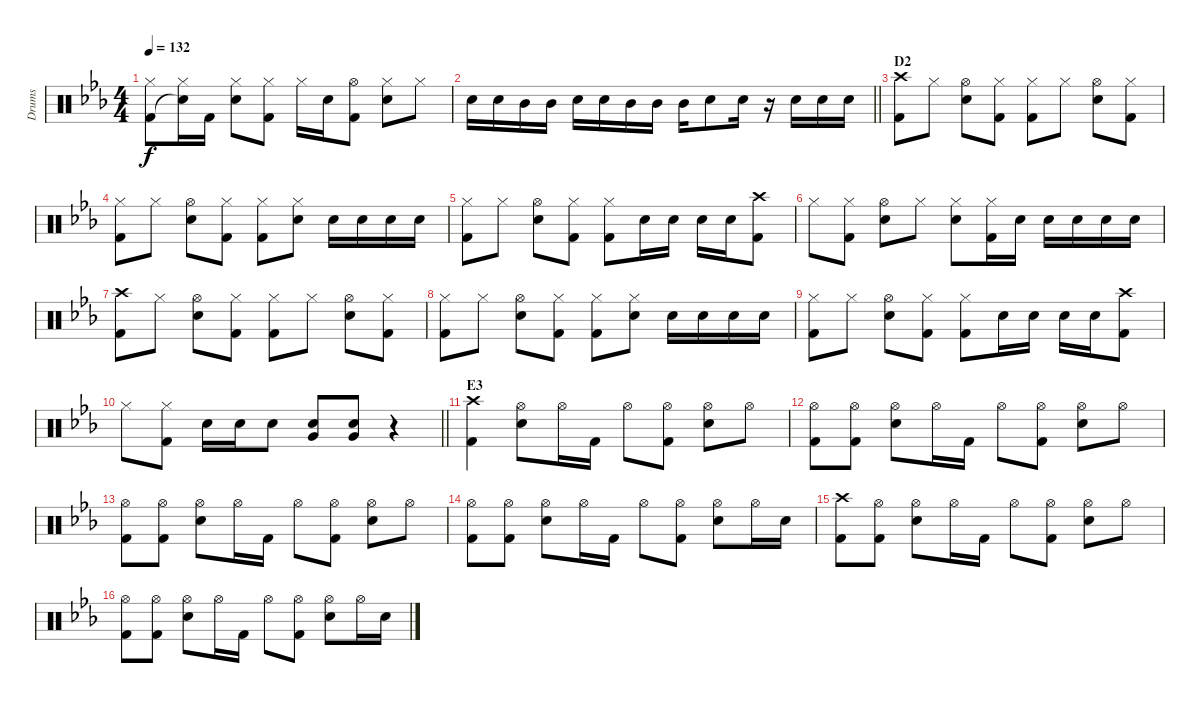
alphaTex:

\track ("Drums" "Drums") {instrument percussion}
\staff {score}
\articulation defaults
\ts (4 4)
\tempo 132
\clef neutral
\ks eb
("Hi-Hat (closed)" "Kick (hit) 2").8{dy f} ("Hi-Hat (closed)" "Snare (hit)"{t}).16 "Kick (hit) 2".16 ("Hi-Hat (closed)" "Snare (hit) 2").8 ("Hi-Hat (closed)" "Kick (hit) 2").8 "Hi-Hat (closed)".16 "Snare (hit) 2".16 ("Hi-Hat (open)" "Kick (hit) 2").8 ("Hi-Hat (closed)" "Snare (hit) 2").8 "Hi-Hat (closed)".8 |
\barLineRight lightlight "Snare (hit) 2".16 "Snare (hit) 2".16 "Mid Tom (hit)".16 "Mid Tom (hit)".16 "Snare (hit) 2".16 "Snare (hit) 2".16 "Mid Tom (hit)".16 "Mid Tom (hit)".16 "Mid Tom (hit)".16 "Snare (hit) 2".8 "Snare (hit) 2".16
r.16 "Snare (hit) 2".16 "Snare (hit) 2".16 "Snare (hit) 2".16 |
\section ("" "D2")
("Crash high (hit)" "Kick (hit) 2").8 "Hi-Hat (closed)".8 ("Hi-Hat (open)" "Snare (hit) 2").8 ("Hi-Hat (closed)" "Kick (hit) 2").8 ("Hi-Hat (closed)" "Kick (hit) 2").8 "Hi-Hat (closed)".8 ("Hi-Hat (open)" "Snare (hit) 2").8 ("Hi-Hat (closed)" "Kick (hit) 2").8 |
("Hi-Hat (closed)" "Kick (hit) 2").8 "Hi-Hat (closed)".8 ("Hi-Hat (open)" "Snare (hit) 2").8 ("Hi-Hat (closed)" "Kick (hit) 2").8 ("Hi-Hat (closed)" "Kick (hit) 2").8 ("Hi-Hat (closed)" "Snare (hit) 2").8 "Snare (hit) 2".16 "Snare (hit) 2".16 "Snare (hit) 2".16 "Snare (hit) 2".16 |
("Hi-Hat (closed)" "Kick (hit) 2").8 "Hi-Hat (closed)".8 ("Hi-Hat (open)" "Snare (hit) 2").8 ("Hi-Hat (closed)" "Kick (hit) 2").8 ("Hi-Hat (closed)" "Kick (hit) 2").8 "Snare (hit) 2".16 "Snare (hit) 2".16 "Snare (hit) 2".16 "Snare (hit) 2".16 ("Crash high (hit)" "Kick (hit) 2").8 |
"Hi-Hat (closed)".8 ("Hi-Hat (closed)" "Kick (hit) 2").8 ("Hi-Hat (open)" "Snare (hit) 2").8 "Hi-Hat (closed)".8 ("Hi-Hat (closed)" "Snare (hit) 2").8 ("Hi-Hat (closed)" "Kick (hit) 2").16 "Snare (hit) 2".16 "Snare (hit) 2".16 "Snare (hit) 2".16 "Snare (hit) 2".16 "Snare (hit) 2".16 |
("Crash high (hit)" "Kick (hit) 2").8 "Hi-Hat (closed)".8 ("Hi-Hat (open)" "Snare (hit) 2").8 ("Hi-Hat (closed)" "Kick (hit) 2").8 ("Hi-Hat (closed)" "Kick (hit) 2").8 "Hi-Hat (closed)".8 ("Hi-Hat (open)" "Snare (hit) 2").8 ("Hi-Hat (closed)" "Kick (hit) 2").8 |
("Hi-Hat (closed)" "Kick (hit) 2").8 "Hi-Hat (closed)".8 ("Hi-Hat (open)" "Snare (hit) 2").8 ("Hi-Hat (closed)" "Kick (hit) 2").8 ("Hi-Hat (closed)" "Kick (hit) 2").8 ("Hi-Hat (closed)" "Snare (hit) 2").8 "Snare (hit) 2".16 "Snare (hit) 2".16 "Snare (hit) 2".16 "Snare (hit) 2".16 |
("Hi-Hat (closed)" "Kick (hit) 2").8 "Hi-Hat (closed)".8 ("Hi-Hat (open)" "Snare (hit) 2").8 ("Hi-Hat (closed)" "Kick (hit) 2").8 ("Hi-Hat (closed)" "Kick (hit) 2").8 "Snare (hit) 2".16 "Snare (hit) 2".16 "Snare (hit) 2".16 "Snare (hit) 2".16 ("Crash high (hit)" "Kick (hit) 2").8 |
\barLineRight lightlight "Hi-Hat (closed)".8
("Hi-Hat (closed)" "Kick (hit) 2").8 "Snare (hit) 2".16 "Snare (hit) 2".16 "Snare (hit) 2".8 ("Snare (hit) 2" "Very Low Tom (hit)").8 ("Snare (hit) 2" "Very Low Tom (hit)").8 r.4 |
\section ("" "E3")
("Crash high (hit)" "Kick (hit) 2").4 ("Hi-Hat (open)" "Snare (hit) 2").8 "Hi-Hat (open)".16 "Kick (hit) 2".16 "Hi-Hat (open)".8 ("Hi-Hat (open)" "Kick (hit) 2").8 ("Hi-Hat (open)" "Snare (hit) 2").8 "Hi-Hat (open)".8 |
("Hi-Hat (open)" "Kick (hit) 2").8 ("Hi-Hat (open)" "Kick (hit) 2").8 ("Hi-Hat (open)" "Snare (hit) 2").8 "Hi-Hat (open)".16 "Kick (hit) 2".16 "Hi-Hat (open)".8 ("Hi-Hat (open)" "Kick (hit) 2").8 ("Hi-Hat (open)" "Snare (hit) 2").8 "Hi-Hat (open)".8 |
("Hi-Hat (open)" "Kick (hit) 2").8 ("Hi-Hat (open)" "Kick (hit) 2").8 ("Hi-Hat (open)" "Snare (hit) 2").8 "Hi-Hat (open)".16 "Kick (hit) 2".16 "Hi-Hat (open)".8 ("Hi-Hat (open)" "Kick (hit) 2").8 ("Hi-Hat (open)" "Snare (hit) 2").8 "Hi-Hat (open)".8 |
("Hi-Hat (open)" "Kick (hit) 2").8 ("Hi-Hat (open)" "Kick (hit) 2").8 ("Hi-Hat (open)" "Snare (hit) 2").8 "Hi-Hat (open)".16 "Kick (hit) 2".16 "Hi-Hat (open)".8 ("Hi-Hat (open)" "Kick (hit) 2").8 ("Hi-Hat (open)" "Snare (hit) 2").8 "Hi-Hat (open)".16 "Snare (hit) 2".16 |
("Crash high (hit)" "Kick (hit) 2").8 ("Hi-Hat (open)" "Kick (hit) 2").8 ("Hi-Hat (open)" "Snare (hit) 2").8 "Hi-Hat (open)".16 "Kick (hit) 2".16 "Hi-Hat (open)".8 ("Hi-Hat (open)" "Kick (hit) 2").8 ("Hi-Hat (open)" "Snare (hit) 2").8 "Hi-Hat (open)".8 |
("Hi-Hat (open)" "Kick (hit) 2").8 ("Hi-Hat (open)" "Kick (hit) 2").8 ("Hi-Hat (open)" "Snare (hit) 2").8 "Hi-Hat (open)".16 "Kick (hit) 2".16 "Hi-Hat (open)".8 ("Hi-Hat (open)" "Kick (hit) 2").8 ("Hi-Hat (open)" "Snare (hit) 2").8 "Hi-Hat (open)".16 "Snare (hit) 2".16
